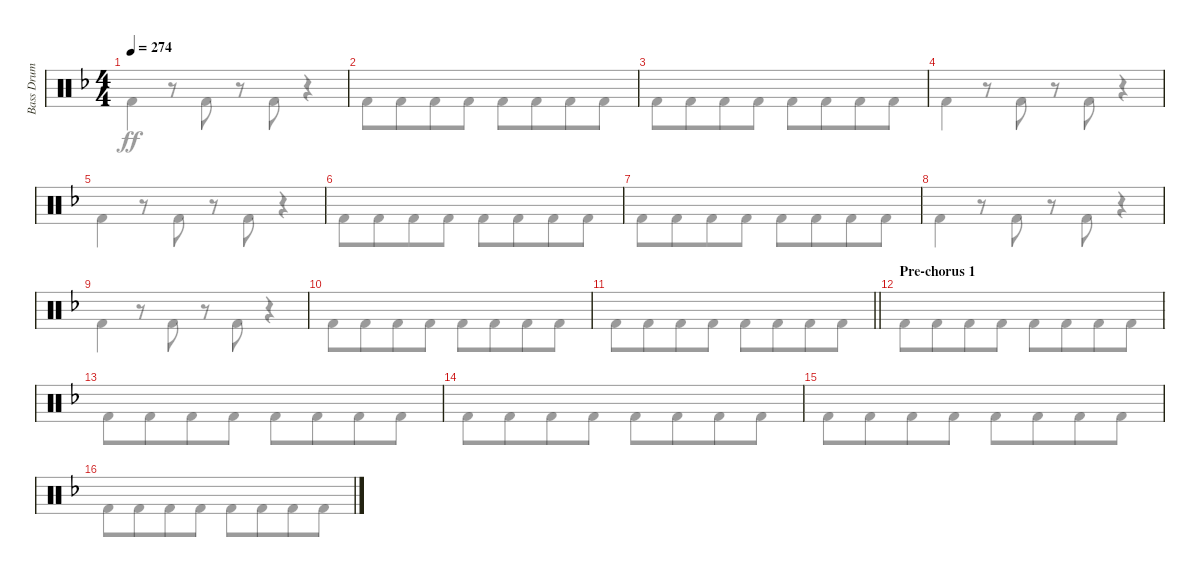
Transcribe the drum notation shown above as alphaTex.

\track ("Bass Drum" "Bass Drum") {instrument percussion}
\staff {score}
\articulation defaults
\voice
\ts (4 4)
\tempo 274
\clef neutral
\ks dminor
|
|
|
|
|
|
|
|
|
|
\barLineRight lightlight
|
\section ("" "Pre-chorus 1")
|
|
|
|
\voice
\clef neutral
\ks dminor "Kick (hit) 2".4{dy ff}
r.8 "Kick (hit) 2".8 r.8 "Kick (hit) 2".8 r.4 |
"Kick (hit) 2".8 "Kick (hit) 2".8{beam merge} "Kick (hit) 2".8 "Kick (hit) 2".8 "Kick (hit) 2".8 "Kick (hit) 2".8{beam merge} "Kick (hit) 2".8 "Kick (hit) 2".8 |
"Kick (hit) 2".8 "Kick (hit) 2".8{beam merge} "Kick (hit) 2".8 "Kick (hit) 2".8 "Kick (hit) 2".8 "Kick (hit) 2".8{beam merge} "Kick (hit) 2".8 "Kick (hit) 2".8 |
"Kick (hit) 2".4 r.8 "Kick (hit) 2".8 r.8 "Kick (hit) 2".8 r.4 |
"Kick (hit) 2".4 r.8 "Kick (hit) 2".8 r.8 "Kick (hit) 2".8 r.4 |
"Kick (hit) 2".8 "Kick (hit) 2".8{beam merge} "Kick (hit) 2".8 "Kick (hit) 2".8 "Kick (hit) 2".8 "Kick (hit) 2".8{beam merge} "Kick (hit) 2".8 "Kick (hit) 2".8 |
"Kick (hit) 2".8 "Kick (hit) 2".8{beam merge} "Kick (hit) 2".8 "Kick (hit) 2".8 "Kick (hit) 2".8 "Kick (hit) 2".8{beam merge} "Kick (hit) 2".8 "Kick (hit) 2".8 |
"Kick (hit) 2".4 r.8 "Kick (hit) 2".8 r.8 "Kick (hit) 2".8 r.4 |
"Kick (hit) 2".4 r.8 "Kick (hit) 2".8 r.8 "Kick (hit) 2".8 r.4 |
"Kick (hit) 2".8 "Kick (hit) 2".8{beam merge} "Kick (hit) 2".8 "Kick (hit) 2".8 "Kick (hit) 2".8 "Kick (hit) 2".8{beam merge} "Kick (hit) 2".8 "Kick (hit) 2".8 |
\barLineRight lightlight "Kick (hit) 2".8 "Kick (hit) 2".8{beam merge} "Kick (hit) 2".8 "Kick (hit) 2".8 "Kick (hit) 2".8 "Kick (hit) 2".8{beam merge} "Kick (hit) 2".8 "Kick (hit) 2".8
|
"Kick (hit) 2".8 "Kick (hit) 2".8{beam merge} "Kick (hit) 2".8 "Kick (hit) 2".8 "Kick (hit) 2".8 "Kick (hit) 2".8{beam merge} "Kick (hit) 2".8 "Kick (hit) 2".8 |
"Kick (hit) 2".8 "Kick (hit) 2".8{beam merge} "Kick (hit) 2".8 "Kick (hit) 2".8 "Kick (hit) 2".8 "Kick (hit) 2".8{beam merge} "Kick (hit) 2".8 "Kick (hit) 2".8 |
"Kick (hit) 2".8 "Kick (hit) 2".8{beam merge} "Kick (hit) 2".8 "Kick (hit) 2".8 "Kick (hit) 2".8 "Kick (hit) 2".8{beam merge} "Kick (hit) 2".8 "Kick (hit) 2".8 |
"Kick (hit) 2".8 "Kick (hit) 2".8{beam merge} "Kick (hit) 2".8 "Kick (hit) 2".8 "Kick (hit) 2".8 "Kick (hit) 2".8{beam merge} "Kick (hit) 2".8 "Kick (hit) 2".8 |
"Kick (hit) 2".8 "Kick (hit) 2".8{beam merge} "Kick (hit) 2".8 "Kick (hit) 2".8 "Kick (hit) 2".8 "Kick (hit) 2".8{beam merge} "Kick (hit) 2".8 "Kick (hit) 2".8
